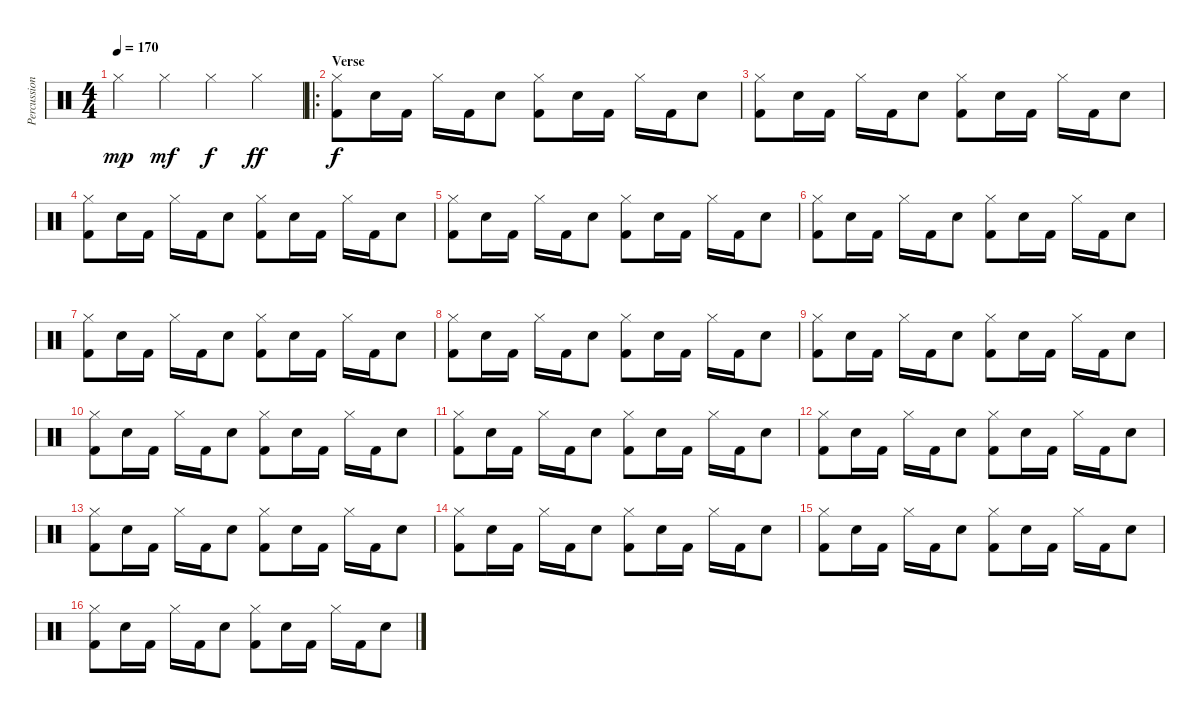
\track ("Percussions" "Percussion") {instrument percussion}
\staff {score}
\articulation defaults
\ts (4 4)
\tempo 170
\clef neutral
\ks c "Hi-Hat (closed)".4{dy mp} "Hi-Hat (closed)".4{dy mf} "Hi-Hat (closed)".4{dy f} "Hi-Hat (closed)".4{dy ff}
|
\ro
\section ("" "Verse")
("Hi-Hat (closed)" "Kick (hit) 2").8{dy f} "Snare (hit) 2".16 "Kick (hit) 2".16 "Hi-Hat (closed)".16 "Kick (hit) 2".16 "Snare (hit) 2".8 ("Hi-Hat (closed)" "Kick (hit) 2").8 "Snare (hit) 2".16 "Kick (hit) 2".16 "Hi-Hat (closed)".16 "Kick (hit) 2".16 "Snare (hit) 2".8 |
("Hi-Hat (closed)" "Kick (hit) 2").8 "Snare (hit) 2".16 "Kick (hit) 2".16 "Hi-Hat (closed)".16 "Kick (hit) 2".16 "Snare (hit) 2".8 ("Hi-Hat (closed)" "Kick (hit) 2").8 "Snare (hit) 2".16 "Kick (hit) 2".16 "Hi-Hat (closed)".16 "Kick (hit) 2".16 "Snare (hit) 2".8 |
("Hi-Hat (closed)" "Kick (hit) 2").8{lyrics (0 "") lyrics (1 "") lyrics (2 "") lyrics (3 "") lyrics (4 "")} "Snare (hit) 2".16 "Kick (hit) 2".16 "Hi-Hat (closed)".16 "Kick (hit) 2".16 "Snare (hit) 2".8 ("Hi-Hat (closed)" "Kick (hit) 2").8 "Snare (hit) 2".16 "Kick (hit) 2".16 "Hi-Hat (closed)".16 "Kick (hit) 2".16 "Snare (hit) 2".8 |
("Hi-Hat (closed)" "Kick (hit) 2").8 "Snare (hit) 2".16 "Kick (hit) 2".16 "Hi-Hat (closed)".16 "Kick (hit) 2".16 "Snare (hit) 2".8 ("Hi-Hat (closed)" "Kick (hit) 2").8 "Snare (hit) 2".16 "Kick (hit) 2".16 "Hi-Hat (closed)".16 "Kick (hit) 2".16 "Snare (hit) 2".8 |
("Hi-Hat (closed)" "Kick (hit) 2").8 "Snare (hit) 2".16 "Kick (hit) 2".16 "Hi-Hat (closed)".16 "Kick (hit) 2".16 "Snare (hit) 2".8 ("Hi-Hat (closed)" "Kick (hit) 2").8 "Snare (hit) 2".16 "Kick (hit) 2".16 "Hi-Hat (closed)".16 "Kick (hit) 2".16 "Snare (hit) 2".8 |
("Hi-Hat (closed)" "Kick (hit) 2").8 "Snare (hit) 2".16 "Kick (hit) 2".16 "Hi-Hat (closed)".16 "Kick (hit) 2".16 "Snare (hit) 2".8 ("Hi-Hat (closed)" "Kick (hit) 2").8 "Snare (hit) 2".16 "Kick (hit) 2".16 "Hi-Hat (closed)".16 "Kick (hit) 2".16 "Snare (hit) 2".8 |
("Hi-Hat (closed)" "Kick (hit) 2").8 "Snare (hit) 2".16 "Kick (hit) 2".16 "Hi-Hat (closed)".16 "Kick (hit) 2".16 "Snare (hit) 2".8 ("Hi-Hat (closed)" "Kick (hit) 2").8 "Snare (hit) 2".16 "Kick (hit) 2".16 "Hi-Hat (closed)".16 "Kick (hit) 2".16 "Snare (hit) 2".8 |
("Hi-Hat (closed)" "Kick (hit) 2").8 "Snare (hit) 2".16 "Kick (hit) 2".16 "Hi-Hat (closed)".16 "Kick (hit) 2".16 "Snare (hit) 2".8 ("Hi-Hat (closed)" "Kick (hit) 2").8 "Snare (hit) 2".16 "Kick (hit) 2".16 "Hi-Hat (closed)".16 "Kick (hit) 2".16 "Snare (hit) 2".8 |
("Hi-Hat (closed)" "Kick (hit) 2").8 "Snare (hit) 2".16 "Kick (hit) 2".16 "Hi-Hat (closed)".16 "Kick (hit) 2".16 "Snare (hit) 2".8 ("Hi-Hat (closed)" "Kick (hit) 2").8 "Snare (hit) 2".16 "Kick (hit) 2".16 "Hi-Hat (closed)".16 "Kick (hit) 2".16 "Snare (hit) 2".8 |
("Hi-Hat (closed)" "Kick (hit) 2").8 "Snare (hit) 2".16 "Kick (hit) 2".16 "Hi-Hat (closed)".16 "Kick (hit) 2".16 "Snare (hit) 2".8 ("Hi-Hat (closed)" "Kick (hit) 2").8 "Snare (hit) 2".16 "Kick (hit) 2".16 "Hi-Hat (closed)".16 "Kick (hit) 2".16 "Snare (hit) 2".8 |
("Hi-Hat (closed)" "Kick (hit) 2").8 "Snare (hit) 2".16 "Kick (hit) 2".16 "Hi-Hat (closed)".16 "Kick (hit) 2".16 "Snare (hit) 2".8 ("Hi-Hat (closed)" "Kick (hit) 2").8 "Snare (hit) 2".16 "Kick (hit) 2".16 "Hi-Hat (closed)".16 "Kick (hit) 2".16 "Snare (hit) 2".8 |
("Hi-Hat (closed)" "Kick (hit) 2").8 "Snare (hit) 2".16 "Kick (hit) 2".16 "Hi-Hat (closed)".16 "Kick (hit) 2".16 "Snare (hit) 2".8 ("Hi-Hat (closed)" "Kick (hit) 2").8 "Snare (hit) 2".16 "Kick (hit) 2".16 "Hi-Hat (closed)".16 "Kick (hit) 2".16 "Snare (hit) 2".8 |
("Hi-Hat (closed)" "Kick (hit) 2").8 "Snare (hit) 2".16 "Kick (hit) 2".16 "Hi-Hat (closed)".16 "Kick (hit) 2".16 "Snare (hit) 2".8 ("Hi-Hat (closed)" "Kick (hit) 2").8 "Snare (hit) 2".16 "Kick (hit) 2".16 "Hi-Hat (closed)".16 "Kick (hit) 2".16 "Snare (hit) 2".8 |
("Hi-Hat (closed)" "Kick (hit) 2").8 "Snare (hit) 2".16 "Kick (hit) 2".16 "Hi-Hat (closed)".16 "Kick (hit) 2".16 "Snare (hit) 2".8 ("Hi-Hat (closed)" "Kick (hit) 2").8 "Snare (hit) 2".16 "Kick (hit) 2".16 "Hi-Hat (closed)".16 "Kick (hit) 2".16 "Snare (hit) 2".8 |
("Hi-Hat (closed)" "Kick (hit) 2").8 "Snare (hit) 2".16 "Kick (hit) 2".16 "Hi-Hat (closed)".16 "Kick (hit) 2".16 "Snare (hit) 2".8 ("Hi-Hat (closed)" "Kick (hit) 2").8 "Snare (hit) 2".16 "Kick (hit) 2".16 "Hi-Hat (closed)".16 "Kick (hit) 2".16 "Snare (hit) 2".8
